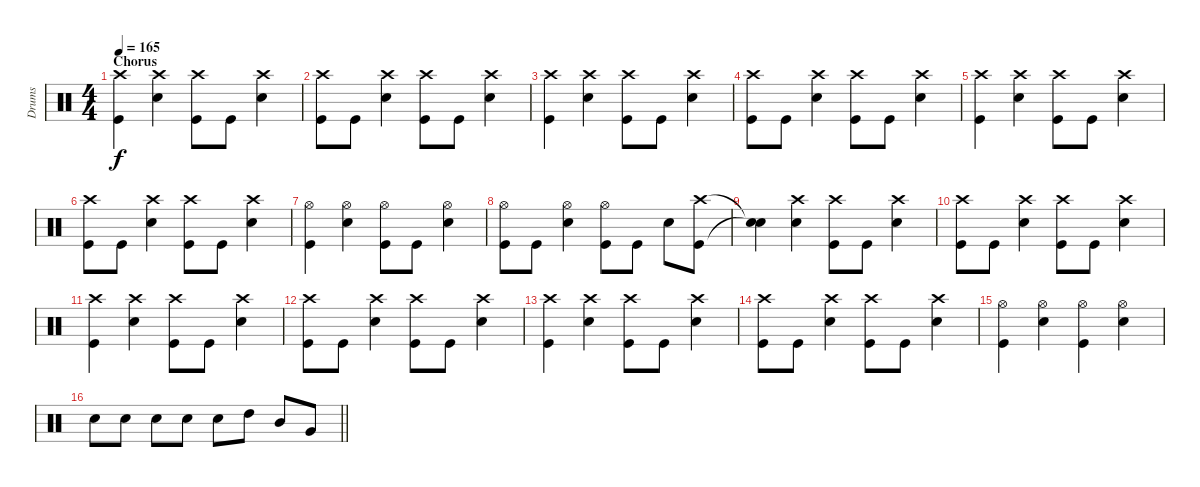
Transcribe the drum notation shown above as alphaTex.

\track ("Drums" "Drums") {instrument percussion}
\staff {score}
\articulation defaults
\ts (4 4)
\section ("" "Chorus")
\tempo 165
\clef neutral
\ks c
("Crash high (hit)" "Kick (hit)").4{dy f} ("Crash high (hit)" "Snare (hit) 2").4 ("Crash high (hit)" "Kick (hit)").8 "Kick (hit)".8 ("Crash high (hit)" "Snare (hit) 2").4 |
("Crash high (hit)" "Kick (hit)").8 "Kick (hit)".8 ("Crash high (hit)" "Snare (hit) 2").4 ("Crash high (hit)" "Kick (hit)").8 "Kick (hit)".8 ("Crash high (hit)" "Snare (hit) 2").4 |
("Crash high (hit)" "Kick (hit)").4 ("Crash high (hit)" "Snare (hit) 2").4 ("Crash high (hit)" "Kick (hit)").8 "Kick (hit)".8 ("Crash high (hit)" "Snare (hit) 2").4 |
("Crash high (hit)" "Kick (hit)").8 "Kick (hit)".8 ("Crash high (hit)" "Snare (hit) 2").4 ("Crash high (hit)" "Kick (hit)").8 "Kick (hit)".8 ("Crash high (hit)" "Snare (hit) 2").4 |
("Crash high (hit)" "Kick (hit)").4 ("Crash high (hit)" "Snare (hit) 2").4 ("Crash high (hit)" "Kick (hit)").8 "Kick (hit)".8 ("Crash high (hit)" "Snare (hit) 2").4 |
("Crash high (hit)" "Kick (hit)").8 "Kick (hit)".8 ("Crash high (hit)" "Snare (hit) 2").4 ("Crash high (hit)" "Kick (hit)").8 "Kick (hit)".8 ("Crash high (hit)" "Snare (hit) 2").4 |
("Hi-Hat (open)" "Kick (hit)").4 ("Hi-Hat (open)" "Snare (hit) 2").4 ("Hi-Hat (open)" "Kick (hit)").8 "Kick (hit)".8 ("Hi-Hat (open)" "Snare (hit) 2").4 |
("Hi-Hat (open)" "Kick (hit)").8 "Kick (hit)".8 ("Hi-Hat (open)" "Snare (hit) 2").4 ("Hi-Hat (open)" "Kick (hit)").8 "Kick (hit)".8 "Snare (hit) 2".8 ("Kick (hit)" "Crash high (hit)").8 |
("Snare (hit)"{t} "Snare (hit)"{t}).4 ("Crash high (hit)" "Snare (hit) 2").4 ("Crash high (hit)" "Kick (hit)").8 "Kick (hit)".8 ("Crash high (hit)" "Snare (hit) 2").4 |
("Crash high (hit)" "Kick (hit)").8 "Kick (hit)".8 ("Crash high (hit)" "Snare (hit) 2").4 ("Crash high (hit)" "Kick (hit)").8 "Kick (hit)".8 ("Crash high (hit)" "Snare (hit) 2").4 |
("Crash high (hit)" "Kick (hit)").4 ("Crash high (hit)" "Snare (hit) 2").4 ("Crash high (hit)" "Kick (hit)").8 "Kick (hit)".8 ("Crash high (hit)" "Snare (hit) 2").4 |
("Crash high (hit)" "Kick (hit)").8 "Kick (hit)".8 ("Crash high (hit)" "Snare (hit) 2").4 ("Crash high (hit)" "Kick (hit)").8 "Kick (hit)".8 ("Crash high (hit)" "Snare (hit) 2").4 |
("Crash high (hit)" "Kick (hit)").4 ("Crash high (hit)" "Snare (hit) 2").4 ("Crash high (hit)" "Kick (hit)").8 "Kick (hit)".8 ("Crash high (hit)" "Snare (hit) 2").4 |
("Crash high (hit)" "Kick (hit)").8 "Kick (hit)".8 ("Crash high (hit)" "Snare (hit) 2").4 ("Crash high (hit)" "Kick (hit)").8 "Kick (hit)".8 ("Crash high (hit)" "Snare (hit) 2").4 |
("Hi-Hat (open)" "Kick (hit)").4 ("Hi-Hat (open)" "Snare (hit) 2").4 ("Hi-Hat (open)" "Kick (hit)").4 ("Hi-Hat (open)" "Snare (hit) 2").4 |
\barLineRight lightlight "Snare (hit) 2".8 "Snare (hit) 2".8 "Snare (hit) 2".8 "Snare (hit) 2".8 "Snare (hit) 2".8 "High Tom (hit)".8 "Mid Tom (hit)".8 "Very Low Tom (hit)".8
